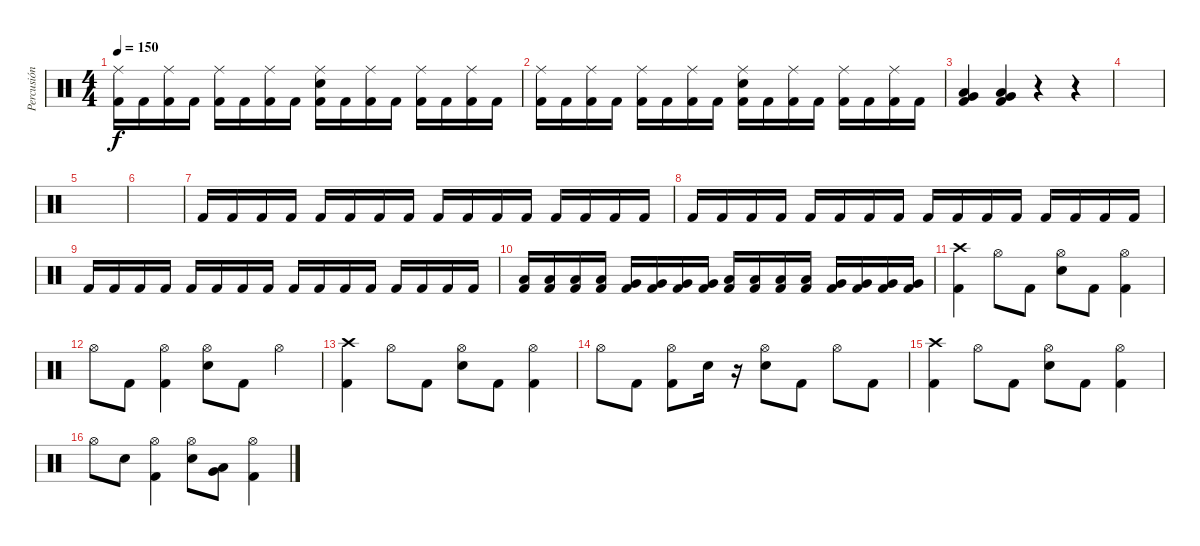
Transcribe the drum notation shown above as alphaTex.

\track ("Percusión" "Percusión") {instrument percussion}
\staff {score}
\articulation defaults
\ts (4 4)
\tempo 150
\clef neutral
\ks c
("Kick (hit) 2" "Ride (middle)").16{dy f} "Kick (hit) 2".16 ("Kick (hit) 2" "Ride (middle)").16 "Kick (hit) 2".16 ("Kick (hit) 2" "Ride (middle)").16 "Kick (hit) 2".16 ("Kick (hit) 2" "Ride (middle)").16 "Kick (hit) 2".16 ("Kick (hit) 2" "Ride (middle)" "Snare (hit) 2").16 "Kick (hit) 2".16 ("Kick (hit) 2" "Ride (middle)").16 "Kick (hit) 2".16 ("Kick (hit) 2" "Ride (middle)").16 "Kick (hit) 2".16 ("Kick (hit) 2" "Ride (middle)").16 "Kick (hit) 2".16 |
("Kick (hit) 2" "Ride (middle)").16 "Kick (hit) 2".16 ("Kick (hit) 2" "Ride (middle)").16 "Kick (hit) 2".16 ("Kick (hit) 2" "Ride (middle)").16 "Kick (hit) 2".16 ("Kick (hit) 2" "Ride (middle)").16 "Kick (hit) 2".16 ("Kick (hit) 2" "Ride (middle)" "Snare (hit) 2").16 "Kick (hit) 2".16 ("Kick (hit) 2" "Ride (middle)").16 "Kick (hit) 2".16 ("Kick (hit) 2" "Ride (middle)").16 "Kick (hit) 2".16 ("Kick (hit) 2" "Ride (middle)").16 "Kick (hit) 2".16 |
("Low Floor Tom (hit)" "Kick (hit) 2" "Very Low Tom (hit)").4 ("Low Floor Tom (hit)" "Kick (hit) 2" "Very Low Tom (hit)").4 r.4 r.4 |
|
|
|
"Kick (hit) 2".16 "Kick (hit) 2".16 "Kick (hit) 2".16 "Kick (hit) 2".16 "Kick (hit) 2".16 "Kick (hit) 2".16 "Kick (hit) 2".16 "Kick (hit) 2".16 "Kick (hit) 2".16 "Kick (hit) 2".16 "Kick (hit) 2".16 "Kick (hit) 2".16 "Kick (hit) 2".16 "Kick (hit) 2".16 "Kick (hit) 2".16 "Kick (hit) 2".16 |
"Kick (hit) 2".16 "Kick (hit) 2".16 "Kick (hit) 2".16 "Kick (hit) 2".16 "Kick (hit) 2".16 "Kick (hit) 2".16 "Kick (hit) 2".16 "Kick (hit) 2".16 "Kick (hit) 2".16 "Kick (hit) 2".16 "Kick (hit) 2".16 "Kick (hit) 2".16 "Kick (hit) 2".16 "Kick (hit) 2".16 "Kick (hit) 2".16 "Kick (hit) 2".16 |
"Kick (hit) 2".16 "Kick (hit) 2".16 "Kick (hit) 2".16 "Kick (hit) 2".16 "Kick (hit) 2".16 "Kick (hit) 2".16 "Kick (hit) 2".16 "Kick (hit) 2".16 "Kick (hit) 2".16 "Kick (hit) 2".16 "Kick (hit) 2".16 "Kick (hit) 2".16 "Kick (hit) 2".16 "Kick (hit) 2".16 "Kick (hit) 2".16 "Kick (hit) 2".16 |
("Kick (hit) 2" "Low Tom (hit)").16 ("Kick (hit) 2" "Low Tom (hit)").16 ("Kick (hit) 2" "Low Tom (hit)").16 ("Kick (hit) 2" "Low Tom (hit)").16 ("Kick (hit) 2" "Very Low Tom (hit)").16 ("Kick (hit) 2" "Very Low Tom (hit)").16 ("Kick (hit) 2" "Very Low Tom (hit)").16 ("Kick (hit) 2" "Very Low Tom (hit)").16 ("Kick (hit) 2" "Low Floor Tom (hit)").16 ("Kick (hit) 2" "Low Floor Tom (hit)").16 ("Kick (hit) 2" "Low Floor Tom (hit)").16 ("Kick (hit) 2" "Low Floor Tom (hit)").16 ("Kick (hit) 2" "Very Low Tom (hit)").16 ("Kick (hit) 2" "Very Low Tom (hit)").16 ("Kick (hit) 2" "Very Low Tom (hit)").16 ("Kick (hit) 2" "Very Low Tom (hit)").16 |
("Crash high (hit)" "Kick (hit) 2").4 "Hi-Hat (open)".8 "Kick (hit) 2".8 ("Hi-Hat (open)" "Snare (hit) 2").8 "Kick (hit) 2".8 ("Hi-Hat (open)" "Kick (hit) 2").4 |
"Hi-Hat (open)".8 "Kick (hit) 2".8 ("Hi-Hat (open)" "Kick (hit) 2").4 ("Hi-Hat (open)" "Snare (hit) 2").8 "Kick (hit) 2".8 "Hi-Hat (open)".4 |
("Crash high (hit)" "Kick (hit) 2").4 "Hi-Hat (open)".8 "Kick (hit) 2".8 ("Hi-Hat (open)" "Snare (hit) 2").8 "Kick (hit) 2".8 ("Hi-Hat (open)" "Kick (hit) 2").4 |
"Hi-Hat (open)".8 "Kick (hit) 2".8 ("Hi-Hat (open)" "Kick (hit) 2").8 "Snare (hit) 2".16 r.16 ("Hi-Hat (open)" "Snare (hit) 2").8 "Kick (hit) 2".8 "Hi-Hat (open)".8 "Kick (hit) 2".8 |
("Crash high (hit)" "Kick (hit) 2").4 "Hi-Hat (open)".8 "Kick (hit) 2".8 ("Hi-Hat (open)" "Snare (hit) 2").8 "Kick (hit) 2".8 ("Hi-Hat (open)" "Kick (hit) 2").4 |
"Hi-Hat (open)".8 "Snare (hit) 2".8 ("Hi-Hat (open)" "Kick (hit) 2").4 ("Hi-Hat (open)" "Snare (hit) 2").8 ("Low Floor Tom (hit)" "Very Low Tom (hit)").8 ("Hi-Hat (open)" "Kick (hit) 2").4
